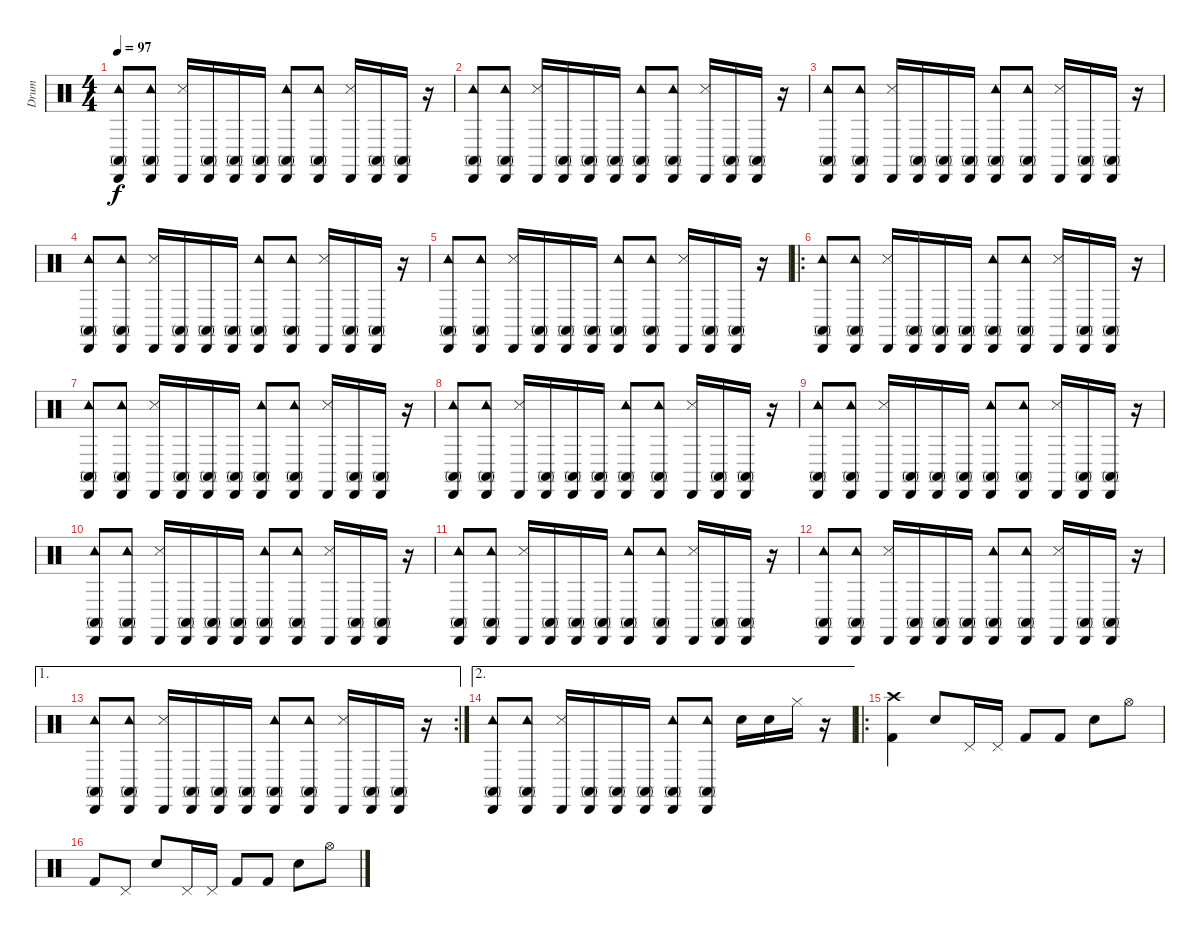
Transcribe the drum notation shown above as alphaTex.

\track ("Drum" "Drum") {instrument percussion}
\staff {score}
\articulation defaults
\ts (4 4)
\tempo 97
\clef neutral
\ks c
("Conga high (mute)" "Tambourine (hit)" "Cabasa (hit)").8{dy f} ("Conga high (mute)" "Tambourine (hit)" "Cabasa (hit)").8 ("Snare (side stick) 3" "Cabasa (hit)").16 ("Conga high (mute)" "Cabasa (hit)").16 ("Conga high (mute)" "Cabasa (hit)").16 ("Conga high (mute)" "Cabasa (hit)").16 ("Conga high (mute)" "Tambourine (hit)" "Cabasa (hit)").8 ("Conga high (mute)" "Tambourine (hit)" "Cabasa (hit)").8 ("Snare (side stick) 3" "Cabasa (hit)").16 ("Conga high (mute)" "Cabasa (hit)").16 ("Conga high (mute)" "Cabasa (hit)").16 r.16 |
("Conga high (mute)" "Tambourine (hit)" "Cabasa (hit)").8 ("Conga high (mute)" "Tambourine (hit)" "Cabasa (hit)").8 ("Snare (side stick) 3" "Cabasa (hit)").16 ("Conga high (mute)" "Cabasa (hit)").16 ("Conga high (mute)" "Cabasa (hit)").16 ("Conga high (mute)" "Cabasa (hit)").16 ("Conga high (mute)" "Tambourine (hit)" "Cabasa (hit)").8 ("Conga high (mute)" "Tambourine (hit)" "Cabasa (hit)").8 ("Snare (side stick) 3" "Cabasa (hit)").16 ("Conga high (mute)" "Cabasa (hit)").16 ("Conga high (mute)" "Cabasa (hit)").16 r.16 |
("Conga high (mute)" "Tambourine (hit)" "Cabasa (hit)").8 ("Conga high (mute)" "Tambourine (hit)" "Cabasa (hit)").8 ("Snare (side stick) 3" "Cabasa (hit)").16 ("Conga high (mute)" "Cabasa (hit)").16 ("Conga high (mute)" "Cabasa (hit)").16 ("Conga high (mute)" "Cabasa (hit)").16 ("Conga high (mute)" "Tambourine (hit)" "Cabasa (hit)").8 ("Conga high (mute)" "Tambourine (hit)" "Cabasa (hit)").8 ("Snare (side stick) 3" "Cabasa (hit)").16 ("Conga high (mute)" "Cabasa (hit)").16 ("Conga high (mute)" "Cabasa (hit)").16 r.16 |
("Conga high (mute)" "Tambourine (hit)" "Cabasa (hit)").8 ("Conga high (mute)" "Tambourine (hit)" "Cabasa (hit)").8 ("Snare (side stick) 3" "Cabasa (hit)").16 ("Conga high (mute)" "Cabasa (hit)").16 ("Conga high (mute)" "Cabasa (hit)").16 ("Conga high (mute)" "Cabasa (hit)").16 ("Conga high (mute)" "Tambourine (hit)" "Cabasa (hit)").8 ("Conga high (mute)" "Tambourine (hit)" "Cabasa (hit)").8 ("Snare (side stick) 3" "Cabasa (hit)").16 ("Conga high (mute)" "Cabasa (hit)").16 ("Conga high (mute)" "Cabasa (hit)").16 r.16 |
("Conga high (mute)" "Tambourine (hit)" "Cabasa (hit)").8 ("Conga high (mute)" "Tambourine (hit)" "Cabasa (hit)").8 ("Snare (side stick) 3" "Cabasa (hit)").16 ("Conga high (mute)" "Cabasa (hit)").16 ("Conga high (mute)" "Cabasa (hit)").16 ("Conga high (mute)" "Cabasa (hit)").16 ("Conga high (mute)" "Tambourine (hit)" "Cabasa (hit)").8 ("Conga high (mute)" "Tambourine (hit)" "Cabasa (hit)").8 ("Snare (side stick) 3" "Cabasa (hit)").16 ("Conga high (mute)" "Cabasa (hit)").16 ("Conga high (mute)" "Cabasa (hit)").16 r.16 |
\ro
("Conga high (mute)" "Tambourine (hit)" "Cabasa (hit)").8 ("Conga high (mute)" "Tambourine (hit)" "Cabasa (hit)").8 ("Snare (side stick) 3" "Cabasa (hit)").16 ("Conga high (mute)" "Cabasa (hit)").16 ("Conga high (mute)" "Cabasa (hit)").16 ("Conga high (mute)" "Cabasa (hit)").16 ("Conga high (mute)" "Tambourine (hit)" "Cabasa (hit)").8 ("Conga high (mute)" "Tambourine (hit)" "Cabasa (hit)").8 ("Snare (side stick) 3" "Cabasa (hit)").16 ("Conga high (mute)" "Cabasa (hit)").16 ("Conga high (mute)" "Cabasa (hit)").16 r.16 |
("Conga high (mute)" "Tambourine (hit)" "Cabasa (hit)").8 ("Conga high (mute)" "Tambourine (hit)" "Cabasa (hit)").8 ("Snare (side stick) 3" "Cabasa (hit)").16 ("Conga high (mute)" "Cabasa (hit)").16 ("Conga high (mute)" "Cabasa (hit)").16 ("Conga high (mute)" "Cabasa (hit)").16 ("Conga high (mute)" "Tambourine (hit)" "Cabasa (hit)").8 ("Conga high (mute)" "Tambourine (hit)" "Cabasa (hit)").8 ("Snare (side stick) 3" "Cabasa (hit)").16 ("Conga high (mute)" "Cabasa (hit)").16 ("Conga high (mute)" "Cabasa (hit)").16 r.16 |
("Conga high (mute)" "Tambourine (hit)" "Cabasa (hit)").8 ("Conga high (mute)" "Tambourine (hit)" "Cabasa (hit)").8 ("Snare (side stick) 3" "Cabasa (hit)").16 ("Conga high (mute)" "Cabasa (hit)").16 ("Conga high (mute)" "Cabasa (hit)").16 ("Conga high (mute)" "Cabasa (hit)").16 ("Conga high (mute)" "Tambourine (hit)" "Cabasa (hit)").8 ("Conga high (mute)" "Tambourine (hit)" "Cabasa (hit)").8 ("Snare (side stick) 3" "Cabasa (hit)").16 ("Conga high (mute)" "Cabasa (hit)").16 ("Conga high (mute)" "Cabasa (hit)").16 r.16 |
("Conga high (mute)" "Tambourine (hit)" "Cabasa (hit)").8 ("Conga high (mute)" "Tambourine (hit)" "Cabasa (hit)").8 ("Snare (side stick) 3" "Cabasa (hit)").16 ("Conga high (mute)" "Cabasa (hit)").16 ("Conga high (mute)" "Cabasa (hit)").16 ("Conga high (mute)" "Cabasa (hit)").16 ("Conga high (mute)" "Tambourine (hit)" "Cabasa (hit)").8 ("Conga high (mute)" "Tambourine (hit)" "Cabasa (hit)").8 ("Snare (side stick) 3" "Cabasa (hit)").16 ("Conga high (mute)" "Cabasa (hit)").16 ("Conga high (mute)" "Cabasa (hit)").16 r.16 |
("Conga high (mute)" "Tambourine (hit)" "Cabasa (hit)").8 ("Conga high (mute)" "Tambourine (hit)" "Cabasa (hit)").8 ("Snare (side stick) 3" "Cabasa (hit)").16 ("Conga high (mute)" "Cabasa (hit)").16 ("Conga high (mute)" "Cabasa (hit)").16 ("Conga high (mute)" "Cabasa (hit)").16 ("Conga high (mute)" "Tambourine (hit)" "Cabasa (hit)").8 ("Conga high (mute)" "Tambourine (hit)" "Cabasa (hit)").8 ("Snare (side stick) 3" "Cabasa (hit)").16 ("Conga high (mute)" "Cabasa (hit)").16 ("Conga high (mute)" "Cabasa (hit)").16 r.16 |
("Conga high (mute)" "Tambourine (hit)" "Cabasa (hit)").8 ("Conga high (mute)" "Tambourine (hit)" "Cabasa (hit)").8 ("Snare (side stick) 3" "Cabasa (hit)").16 ("Conga high (mute)" "Cabasa (hit)").16 ("Conga high (mute)" "Cabasa (hit)").16 ("Conga high (mute)" "Cabasa (hit)").16 ("Conga high (mute)" "Tambourine (hit)" "Cabasa (hit)").8 ("Conga high (mute)" "Tambourine (hit)" "Cabasa (hit)").8 ("Snare (side stick) 3" "Cabasa (hit)").16 ("Conga high (mute)" "Cabasa (hit)").16 ("Conga high (mute)" "Cabasa (hit)").16 r.16 |
("Conga high (mute)" "Tambourine (hit)" "Cabasa (hit)").8 ("Conga high (mute)" "Tambourine (hit)" "Cabasa (hit)").8 ("Snare (side stick) 3" "Cabasa (hit)").16 ("Conga high (mute)" "Cabasa (hit)").16 ("Conga high (mute)" "Cabasa (hit)").16 ("Conga high (mute)" "Cabasa (hit)").16 ("Conga high (mute)" "Tambourine (hit)" "Cabasa (hit)").8 ("Conga high (mute)" "Tambourine (hit)" "Cabasa (hit)").8 ("Snare (side stick) 3" "Cabasa (hit)").16 ("Conga high (mute)" "Cabasa (hit)").16 ("Conga high (mute)" "Cabasa (hit)").16 r.16 |
\ae 1
\rc 2
("Conga high (mute)" "Tambourine (hit)" "Cabasa (hit)").8 ("Conga high (mute)" "Tambourine (hit)" "Cabasa (hit)").8 ("Snare (side stick) 3" "Cabasa (hit)").16 ("Conga high (mute)" "Cabasa (hit)").16 ("Conga high (mute)" "Cabasa (hit)").16 ("Conga high (mute)" "Cabasa (hit)").16 ("Conga high (mute)" "Tambourine (hit)" "Cabasa (hit)").8 ("Conga high (mute)" "Tambourine (hit)" "Cabasa (hit)").8 ("Snare (side stick) 3" "Cabasa (hit)").16 ("Conga high (mute)" "Cabasa (hit)").16 ("Conga high (mute)" "Cabasa (hit)").16 r.16 |
\ae 2
("Conga high (mute)" "Tambourine (hit)" "Cabasa (hit)").8 ("Conga high (mute)" "Tambourine (hit)" "Cabasa (hit)").8 ("Snare (side stick) 3" "Cabasa (hit)").16 ("Conga high (mute)" "Cabasa (hit)").16 ("Conga high (mute)" "Cabasa (hit)").16 ("Conga high (mute)" "Cabasa (hit)").16 ("Conga high (mute)" "Tambourine (hit)" "Cabasa (hit)").8 ("Conga high (mute)" "Tambourine (hit)" "Cabasa (hit)").8 "Electric Snare (hit)".16 "Electric Snare (hit)".16 "Hi-Hat (closed)".16 r.16 |
\ro
("Crash high (hit)" "Kick (hit) 2").4 "Electric Snare (hit)".8 "Pedal Hi-Hat (hit)".16 "Pedal Hi-Hat (hit)".16 "Kick (hit) 2".8 "Kick (hit) 2".8 "Electric Snare (hit)".8 "Hi-Hat (open)".8 |
"Kick (hit) 2".8 "Pedal Hi-Hat (hit)".8 "Electric Snare (hit)".8 "Pedal Hi-Hat (hit)".16 "Pedal Hi-Hat (hit)".16 "Kick (hit) 2".8 "Kick (hit) 2".8 "Electric Snare (hit)".8 "Hi-Hat (open)".8
